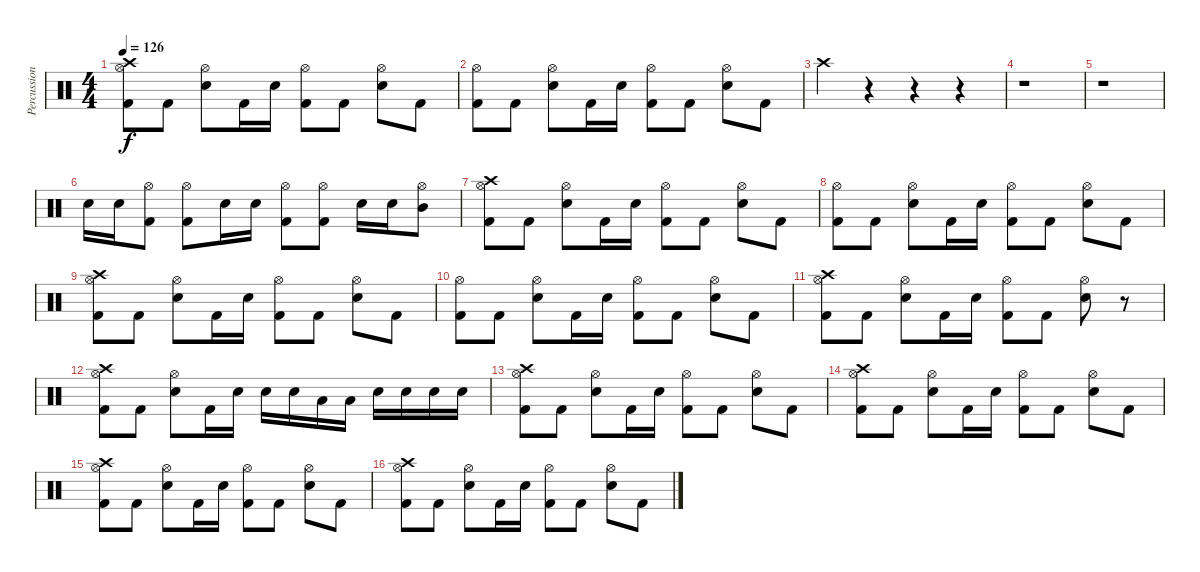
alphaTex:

\track ("Percussion" "Percussion") {instrument percussion}
\staff {score}
\articulation defaults
\ts (4 4)
\tempo 126
\clef neutral
\ks c
("Crash high (hit)" "Hi-Hat (open)" "Kick (hit) 2").8{dy f} "Kick (hit) 2".8 ("Hi-Hat (open)" "Electric Snare (hit)").8 "Kick (hit) 2".16 "Electric Snare (hit)".16 ("Hi-Hat (open)" "Kick (hit) 2").8 "Kick (hit) 2".8 ("Hi-Hat (open)" "Electric Snare (hit)").8 "Kick (hit) 2".8 |
("Hi-Hat (open)" "Kick (hit) 2").8 "Kick (hit) 2".8 ("Hi-Hat (open)" "Electric Snare (hit)").8 "Kick (hit) 2".16 "Electric Snare (hit)".16 ("Hi-Hat (open)" "Kick (hit) 2").8 "Kick (hit) 2".8 ("Hi-Hat (open)" "Electric Snare (hit)").8 "Kick (hit) 2".8 |
"Crash high (hit)".4 r.4 r.4 r.4 |
r.1 |
r.1 |
"Electric Snare (hit)".16 "Electric Snare (hit)".16 ("Hi-Hat (open)" "Kick (hit) 2").8 ("Hi-Hat (open)" "Kick (hit) 2").8 "Electric Snare (hit)".16 "Electric Snare (hit)".16 ("Hi-Hat (open)" "Kick (hit) 2").8 ("Hi-Hat (open)" "Kick (hit) 2").8 "Electric Snare (hit)".16 "Electric Snare (hit)".16 ("Hi-Hat (open)" "Mid Tom (hit)").8 |
("Crash high (hit)" "Hi-Hat (open)" "Kick (hit) 2").8 "Kick (hit) 2".8 ("Hi-Hat (open)" "Electric Snare (hit)").8 "Kick (hit) 2".16 "Electric Snare (hit)".16 ("Hi-Hat (open)" "Kick (hit) 2").8 "Kick (hit) 2".8 ("Hi-Hat (open)" "Electric Snare (hit)").8 "Kick (hit) 2".8 |
("Hi-Hat (open)" "Kick (hit) 2").8 "Kick (hit) 2".8 ("Hi-Hat (open)" "Electric Snare (hit)").8 "Kick (hit) 2".16 "Electric Snare (hit)".16 ("Hi-Hat (open)" "Kick (hit) 2").8 "Kick (hit) 2".8 ("Hi-Hat (open)" "Electric Snare (hit)").8 "Kick (hit) 2".8 |
("Crash high (hit)" "Hi-Hat (open)" "Kick (hit) 2").8 "Kick (hit) 2".8 ("Hi-Hat (open)" "Electric Snare (hit)").8 "Kick (hit) 2".16 "Electric Snare (hit)".16 ("Hi-Hat (open)" "Kick (hit) 2").8 "Kick (hit) 2".8 ("Hi-Hat (open)" "Electric Snare (hit)").8 "Kick (hit) 2".8 |
("Hi-Hat (open)" "Kick (hit) 2").8 "Kick (hit) 2".8 ("Hi-Hat (open)" "Electric Snare (hit)").8 "Kick (hit) 2".16 "Electric Snare (hit)".16 ("Hi-Hat (open)" "Kick (hit) 2").8 "Kick (hit) 2".8 ("Hi-Hat (open)" "Electric Snare (hit)").8 "Kick (hit) 2".8 |
("Crash high (hit)" "Hi-Hat (open)" "Kick (hit) 2").8 "Kick (hit) 2".8 ("Hi-Hat (open)" "Electric Snare (hit)").8 "Kick (hit) 2".16 "Electric Snare (hit)".16 ("Hi-Hat (open)" "Kick (hit) 2").8 "Kick (hit) 2".8 ("Hi-Hat (open)" "Electric Snare (hit)").8 r.8 |
("Crash high (hit)" "Hi-Hat (open)" "Kick (hit) 2").8 "Kick (hit) 2".8 ("Hi-Hat (open)" "Electric Snare (hit)").8 "Kick (hit) 2".16 "Electric Snare (hit)".16 "Electric Snare (hit)".16 "Electric Snare (hit)".16 "Low Tom (hit)".16 "Low Tom (hit)".16 "Electric Snare (hit)".16 "Electric Snare (hit)".16 "Electric Snare (hit)".16 "Electric Snare (hit)".16 |
("Crash high (hit)" "Hi-Hat (open)" "Kick (hit) 2").8 "Kick (hit) 2".8 ("Hi-Hat (open)" "Electric Snare (hit)").8 "Kick (hit) 2".16 "Electric Snare (hit)".16 ("Hi-Hat (open)" "Kick (hit) 2").8 "Kick (hit) 2".8 ("Hi-Hat (open)" "Electric Snare (hit)").8 "Kick (hit) 2".8 |
("Crash high (hit)" "Hi-Hat (open)" "Kick (hit) 2").8 "Kick (hit) 2".8 ("Hi-Hat (open)" "Electric Snare (hit)").8 "Kick (hit) 2".16 "Electric Snare (hit)".16 ("Hi-Hat (open)" "Kick (hit) 2").8 "Kick (hit) 2".8 ("Hi-Hat (open)" "Electric Snare (hit)").8 "Kick (hit) 2".8 |
("Crash high (hit)" "Hi-Hat (open)" "Kick (hit) 2").8 "Kick (hit) 2".8 ("Hi-Hat (open)" "Electric Snare (hit)").8 "Kick (hit) 2".16 "Electric Snare (hit)".16 ("Hi-Hat (open)" "Kick (hit) 2").8 "Kick (hit) 2".8 ("Hi-Hat (open)" "Electric Snare (hit)").8 "Kick (hit) 2".8 |
("Crash high (hit)" "Hi-Hat (open)" "Kick (hit) 2").8 "Kick (hit) 2".8 ("Hi-Hat (open)" "Electric Snare (hit)").8 "Kick (hit) 2".16 "Electric Snare (hit)".16 ("Hi-Hat (open)" "Kick (hit) 2").8 "Kick (hit) 2".8 ("Hi-Hat (open)" "Electric Snare (hit)").8 "Kick (hit) 2".8
